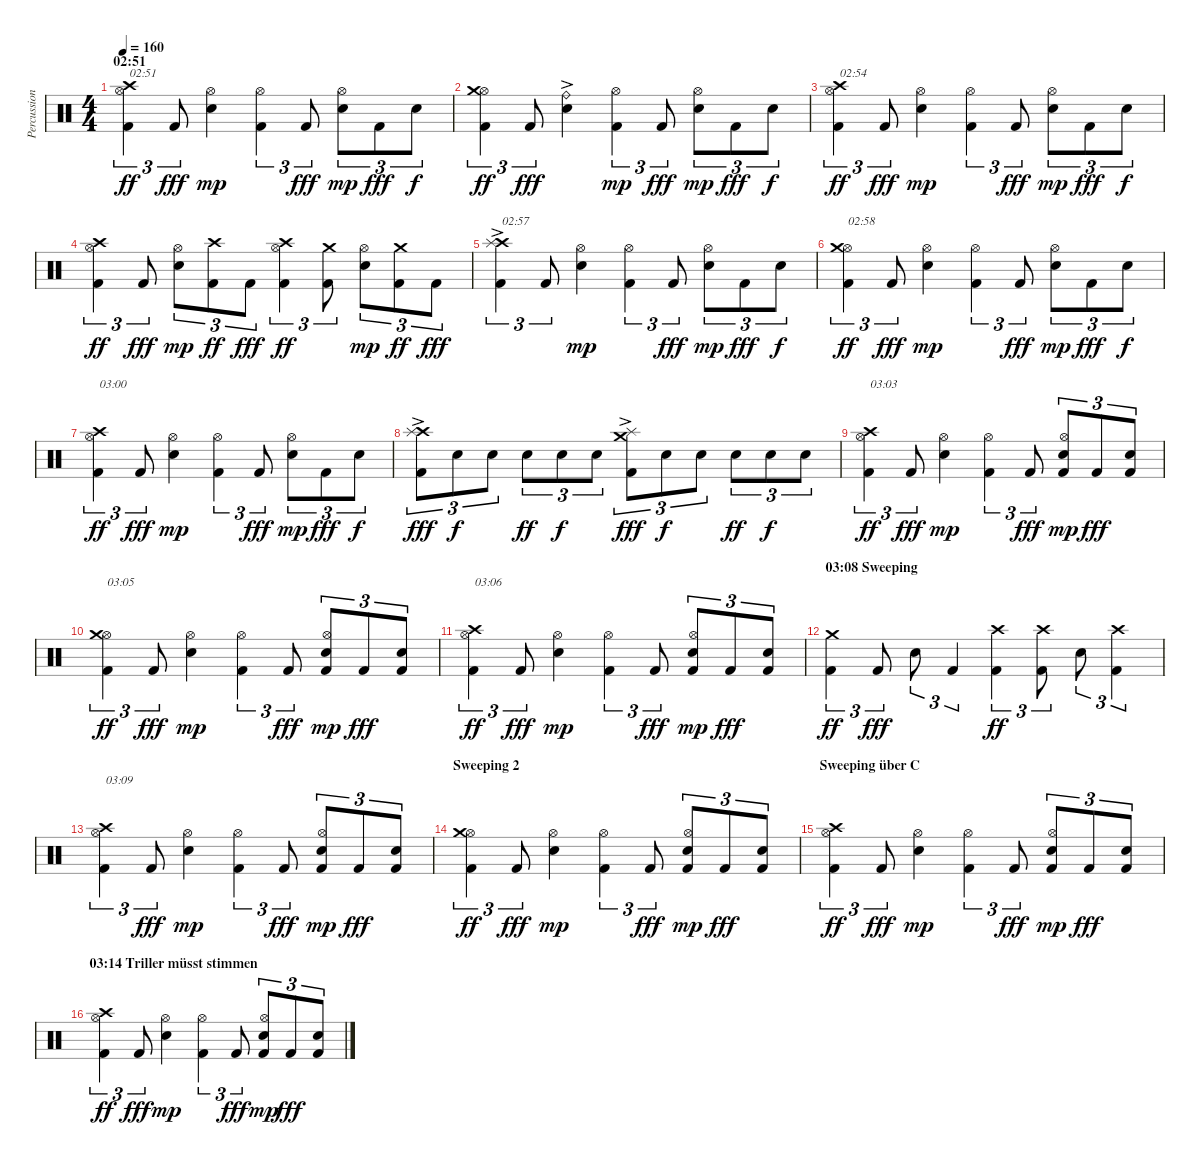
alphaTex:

\track ("Percussion" "Percussion") {instrument percussion}
\staff {score}
\articulation defaults
\ts (4 4)
\section ("" "02:51")
\tempo 160
\clef neutral
\ks c
("Kick (hit) 2" "Hi-Hat (open)" "Crash high (hit)").4{tu (3 2) txt "02:51" dy ff} "Kick (hit) 2".8{tu (3 2) dy fff} ("Electric Snare (hit)" "Hi-Hat (open)").4{dy mp} ("Kick (hit) 2" "Hi-Hat (open)").4{tu (3 2)} "Kick (hit) 2".8{tu (3 2) dy fff} ("Electric Snare (hit)" "Hi-Hat (open)").8{tu (3 2) dy mp} "Kick (hit) 2".8{tu (3 2) dy fff} "Electric Snare (hit)".8{tu (3 2) dy f} |
("Kick (hit) 2" "Hi-Hat (open)" "Crash medium (hit)").4{tu (3 2) dy ff} "Kick (hit) 2".8{tu (3 2) dy fff} ("Electric Snare (hit)" "Ride (bell)"{ac}).4 ("Kick (hit) 2" "Hi-Hat (open)").4{tu (3 2) dy mp} "Kick (hit) 2".8{tu (3 2) dy fff} ("Electric Snare (hit)" "Hi-Hat (open)").8{tu (3 2) dy mp} "Kick (hit) 2".8{tu (3 2) dy fff} "Electric Snare (hit)".8{tu (3 2) dy f} |
("Kick (hit) 2" "Hi-Hat (open)" "Crash high (hit)").4{tu (3 2) txt "02:54" dy ff} "Kick (hit) 2".8{tu (3 2) dy fff} ("Electric Snare (hit)" "Hi-Hat (open)").4{dy mp} ("Kick (hit) 2" "Hi-Hat (open)").4{tu (3 2)} "Kick (hit) 2".8{tu (3 2) dy fff} ("Electric Snare (hit)" "Hi-Hat (open)").8{tu (3 2) dy mp} "Kick (hit) 2".8{tu (3 2) dy fff} "Electric Snare (hit)".8{tu (3 2) dy f} |
("Kick (hit) 2" "Hi-Hat (open)" "Crash high (hit)").4{tu (3 2) dy ff} "Kick (hit) 2".8{tu (3 2) dy fff} ("Electric Snare (hit)" "Hi-Hat (open)").8{tu (3 2) dy mp} ("Kick (hit) 2" "Crash high (hit)").8{tu (3 2) dy ff} "Kick (hit) 2".8{tu (3 2) dy fff} ("Kick (hit) 2" "Hi-Hat (open)" "Crash high (hit)").4{tu (3 2) dy ff} ("Kick (hit) 2" "Crash medium (hit)").8{tu (3 2)} ("Electric Snare (hit)" "Hi-Hat (open)").8{tu (3 2) dy mp} ("Kick (hit) 2" "Crash medium (hit)").8{tu (3 2) dy ff} "Kick (hit) 2".8{tu (3 2) dy fff} |
("Kick (hit) 2" "Crash high (hit)" "Splash (hit)"{ac}).4{tu (3 2) txt "02:57"} "Kick (hit) 2".8{tu (3 2)} ("Electric Snare (hit)" "Hi-Hat (open)").4{dy mp} ("Kick (hit) 2" "Hi-Hat (open)").4{tu (3 2)} "Kick (hit) 2".8{tu (3 2) dy fff} ("Electric Snare (hit)" "Hi-Hat (open)").8{tu (3 2) dy mp} "Kick (hit) 2".8{tu (3 2) dy fff} "Electric Snare (hit)".8{tu (3 2) dy f} |
("Kick (hit) 2" "Hi-Hat (open)" "Crash medium (hit)").4{tu (3 2) txt "02:58" dy ff} "Kick (hit) 2".8{tu (3 2) dy fff} ("Electric Snare (hit)" "Hi-Hat (open)").4{dy mp} ("Kick (hit) 2" "Hi-Hat (open)").4{tu (3 2)} "Kick (hit) 2".8{tu (3 2) dy fff} ("Electric Snare (hit)" "Hi-Hat (open)").8{tu (3 2) dy mp} "Kick (hit) 2".8{tu (3 2) dy fff} "Electric Snare (hit)".8{tu (3 2) dy f} |
("Kick (hit) 2" "Hi-Hat (open)" "Crash high (hit)").4{tu (3 2) txt "03:00" dy ff} "Kick (hit) 2".8{tu (3 2) dy fff} ("Electric Snare (hit)" "Hi-Hat (open)").4{dy mp} ("Kick (hit) 2" "Hi-Hat (open)").4{tu (3 2)} "Kick (hit) 2".8{tu (3 2) dy fff} ("Electric Snare (hit)" "Hi-Hat (open)").8{tu (3 2) dy mp} "Kick (hit) 2".8{tu (3 2) dy fff} "Electric Snare (hit)".8{tu (3 2) dy f} |
("Kick (hit) 2" "Crash high (hit)" "Splash (hit)"{ac}).8{tu (3 2) dy fff} "Electric Snare (hit)".8{tu (3 2) dy f} "Electric Snare (hit)".8{tu (3 2)} "Electric Snare (hit)".8{tu (3 2) dy ff} "Electric Snare (hit)".8{tu (3 2) dy f} "Electric Snare (hit)".8{tu (3 2)} ("Kick (hit) 2" "Crash medium (hit)" "Splash (hit)"{ac}).8{tu (3 2) dy fff} "Electric Snare (hit)".8{tu (3 2) dy f} "Electric Snare (hit)".8{tu (3 2)} "Electric Snare (hit)".8{tu (3 2) dy ff} "Electric Snare (hit)".8{tu (3 2) dy f} "Electric Snare (hit)".8{tu (3 2)} |
("Kick (hit) 2" "Hi-Hat (open)" "Crash high (hit)").4{tu (3 2) txt "03:03" dy ff} "Kick (hit) 2".8{tu (3 2) dy fff} ("Electric Snare (hit)" "Hi-Hat (open)").4{dy mp} ("Kick (hit) 2" "Hi-Hat (open)").4{tu (3 2)} "Kick (hit) 2".8{tu (3 2) dy fff} ("Kick (hit) 2" "Electric Snare (hit)" "Hi-Hat (open)").8{tu (3 2) dy mp} "Kick (hit) 2".8{tu (3 2) dy fff} ("Kick (hit) 2" "Electric Snare (hit)").8{tu (3 2)} |
("Kick (hit) 2" "Hi-Hat (open)" "Crash medium (hit)").4{tu (3 2) txt "03:05" dy ff} "Kick (hit) 2".8{tu (3 2) dy fff} ("Electric Snare (hit)" "Hi-Hat (open)").4{dy mp} ("Kick (hit) 2" "Hi-Hat (open)").4{tu (3 2)} "Kick (hit) 2".8{tu (3 2) dy fff} ("Kick (hit) 2" "Electric Snare (hit)" "Hi-Hat (open)").8{tu (3 2) dy mp} "Kick (hit) 2".8{tu (3 2) dy fff} ("Kick (hit) 2" "Electric Snare (hit)").8{tu (3 2)} |
("Kick (hit) 2" "Hi-Hat (open)" "Crash high (hit)").4{tu (3 2) txt "03:06" dy ff} "Kick (hit) 2".8{tu (3 2) dy fff} ("Electric Snare (hit)" "Hi-Hat (open)").4{dy mp} ("Kick (hit) 2" "Hi-Hat (open)").4{tu (3 2)} "Kick (hit) 2".8{tu (3 2) dy fff} ("Kick (hit) 2" "Electric Snare (hit)" "Hi-Hat (open)").8{tu (3 2) dy mp} "Kick (hit) 2".8{tu (3 2) dy fff} ("Kick (hit) 2" "Electric Snare (hit)").8{tu (3 2)} |
\section ("" "03:08 Sweeping ")
("Kick (hit) 2" "Crash medium (hit)").4{tu (3 2) dy ff} "Kick (hit) 2".8{tu (3 2) dy fff} "Electric Snare (hit)".8{tu (3 2)} "Kick (hit) 2".4{tu (3 2)} ("Kick (hit) 2" "Crash high (hit)").4{tu (3 2) dy ff} ("Kick (hit) 2" "Crash high (hit)").8{tu (3 2)} "Electric Snare (hit)".8{tu (3 2)} ("Kick (hit) 2" "Crash high (hit)").4{tu (3 2)} |
("Kick (hit) 2" "Hi-Hat (open)" "Crash high (hit)").4{tu (3 2) txt "03:09"} "Kick (hit) 2".8{tu (3 2) dy fff} ("Electric Snare (hit)" "Hi-Hat (open)").4{dy mp} ("Kick (hit) 2" "Hi-Hat (open)").4{tu (3 2)} "Kick (hit) 2".8{tu (3 2) dy fff} ("Kick (hit) 2" "Electric Snare (hit)" "Hi-Hat (open)").8{tu (3 2) dy mp} "Kick (hit) 2".8{tu (3 2) dy fff} ("Kick (hit) 2" "Electric Snare (hit)").8{tu (3 2)} |
\section ("" "Sweeping 2")
("Kick (hit) 2" "Hi-Hat (open)" "Crash medium (hit)").4{tu (3 2) dy ff} "Kick (hit) 2".8{tu (3 2) dy fff} ("Electric Snare (hit)" "Hi-Hat (open)").4{dy mp} ("Kick (hit) 2" "Hi-Hat (open)").4{tu (3 2)} "Kick (hit) 2".8{tu (3 2) dy fff} ("Kick (hit) 2" "Electric Snare (hit)" "Hi-Hat (open)").8{tu (3 2) dy mp} "Kick (hit) 2".8{tu (3 2) dy fff} ("Kick (hit) 2" "Electric Snare (hit)").8{tu (3 2)} |
\section ("" "Sweeping über C")
("Kick (hit) 2" "Hi-Hat (open)" "Crash high (hit)").4{tu (3 2) dy ff} "Kick (hit) 2".8{tu (3 2) dy fff} ("Electric Snare (hit)" "Hi-Hat (open)").4{dy mp} ("Kick (hit) 2" "Hi-Hat (open)").4{tu (3 2)} "Kick (hit) 2".8{tu (3 2) dy fff} ("Kick (hit) 2" "Electric Snare (hit)" "Hi-Hat (open)").8{tu (3 2) dy mp} "Kick (hit) 2".8{tu (3 2) dy fff} ("Kick (hit) 2" "Electric Snare (hit)").8{tu (3 2)} |
\section ("" "03:14 Triller müsst stimmen")
("Kick (hit) 2" "Hi-Hat (open)" "Crash high (hit)").4{tu (3 2) dy ff} "Kick (hit) 2".8{tu (3 2) dy fff} ("Electric Snare (hit)" "Hi-Hat (open)").4{dy mp} ("Kick (hit) 2" "Hi-Hat (open)").4{tu (3 2)} "Kick (hit) 2".8{tu (3 2) dy fff} ("Kick (hit) 2" "Electric Snare (hit)" "Hi-Hat (open)").8{tu (3 2) dy mp} "Kick (hit) 2".8{tu (3 2) dy fff} ("Kick (hit) 2" "Electric Snare (hit)").8{tu (3 2)}
